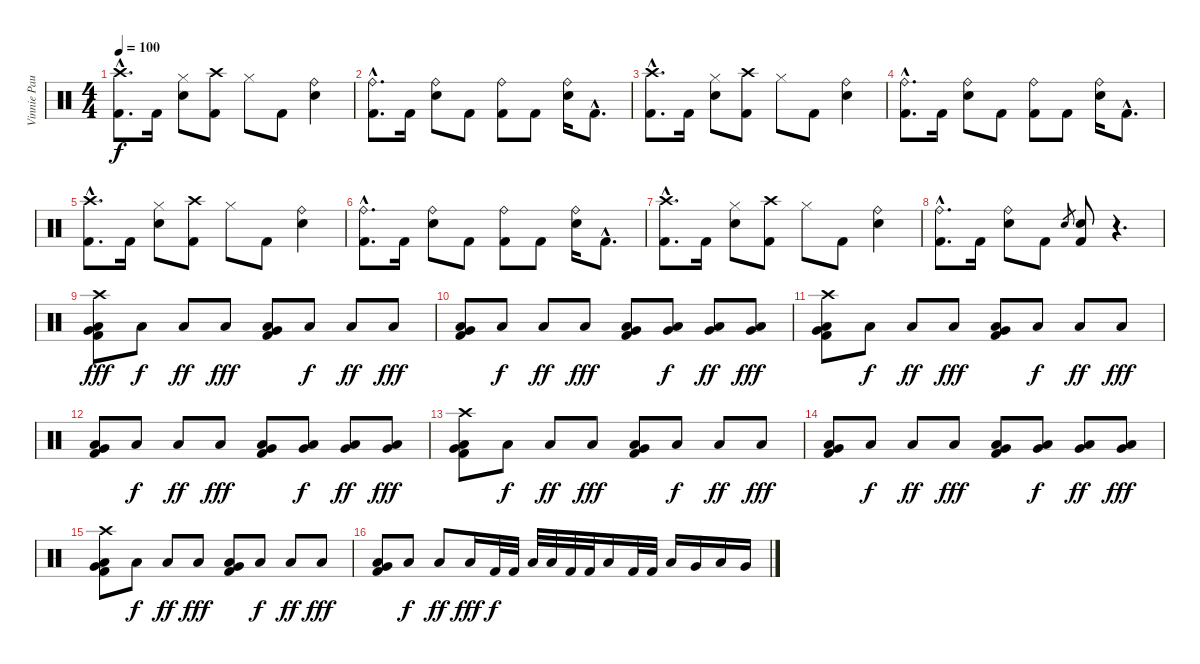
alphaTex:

\track ("Vinnie Paul # Drums" "Vinnie Pau") {instrument percussion}
\staff {score}
\articulation defaults
\ts (4 4)
\tempo 100
\clef neutral
\ks c
("Crash high (hit)"{hac} "Kick (hit) 2"{hac}).8{d dy f} "Kick (hit) 2".16 ("Hi-Hat (closed)" "Electric Snare (hit)").8 ("Crash high (hit)" "Kick (hit) 2").8 "Hi-Hat (closed)".8 "Kick (hit) 2".8 ("Ride (bell)" "Electric Snare (hit)").4 |
("Ride (bell)"{hac} "Kick (hit) 2"{hac}).8{d} "Kick (hit) 2".16 ("Ride (bell)" "Electric Snare (hit)").8 "Kick (hit) 2".8 ("Ride (bell)" "Kick (hit) 2").8 "Kick (hit) 2".8 ("Ride (bell)" "Electric Snare (hit)").16 "Kick (hit) 2"{hac}.8{d} |
("Crash high (hit)"{hac} "Kick (hit) 2"{hac}).8{d} "Kick (hit) 2".16 ("Hi-Hat (closed)" "Electric Snare (hit)").8 ("Crash high (hit)" "Kick (hit) 2").8 "Hi-Hat (closed)".8 "Kick (hit) 2".8 ("Ride (bell)" "Electric Snare (hit)").4 |
("Ride (bell)"{hac} "Kick (hit) 2"{hac}).8{d} "Kick (hit) 2".16 ("Ride (bell)" "Electric Snare (hit)").8 "Kick (hit) 2".8 ("Ride (bell)" "Kick (hit) 2").8 "Kick (hit) 2".8 ("Ride (bell)" "Electric Snare (hit)").16 "Kick (hit) 2"{hac}.8{d} |
("Crash high (hit)"{hac} "Kick (hit) 2"{hac}).8{d} "Kick (hit) 2".16 ("Hi-Hat (closed)" "Electric Snare (hit)").8 ("Crash high (hit)" "Kick (hit) 2").8 "Hi-Hat (closed)".8 "Kick (hit) 2".8 ("Ride (bell)" "Electric Snare (hit)").4 |
("Ride (bell)"{hac} "Kick (hit) 2"{hac}).8{d} "Kick (hit) 2".16 ("Ride (bell)" "Electric Snare (hit)").8 "Kick (hit) 2".8 ("Ride (bell)" "Kick (hit) 2").8 "Kick (hit) 2".8 ("Ride (bell)" "Electric Snare (hit)").16 "Kick (hit) 2"{hac}.8{d} |
("Crash high (hit)"{hac} "Kick (hit) 2"{hac}).8{d} "Kick (hit) 2".16 ("Hi-Hat (closed)" "Electric Snare (hit)").8 ("Crash high (hit)" "Kick (hit) 2").8 "Hi-Hat (closed)".8 "Kick (hit) 2".8 ("Ride (bell)" "Electric Snare (hit)").4 |
("Ride (bell)"{hac} "Kick (hit) 2"{hac}).8{d} "Kick (hit) 2".16 ("Ride (bell)" "Electric Snare (hit)").8 "Kick (hit) 2".8 "Electric Snare (hit)".8{gr} ("Electric Snare (hit)" "Kick (hit) 2").8 r.4{d} |
("Crash high (hit)" "Very Low Tom (hit)" "Low Floor Tom (hit)" "Kick (hit) 2").8{dy fff} "Low Floor Tom (hit)".8{dy f} "Low Floor Tom (hit)".8{dy ff} "Low Floor Tom (hit)".8{dy fff} ("Very Low Tom (hit)" "Low Floor Tom (hit)" "Kick (hit) 2").8 "Low Floor Tom (hit)".8{dy f} "Low Floor Tom (hit)".8{dy ff} "Low Floor Tom (hit)".8{dy fff} |
("Very Low Tom (hit)" "Low Floor Tom (hit)" "Kick (hit) 2").8 "Low Floor Tom (hit)".8{dy f} "Low Floor Tom (hit)".8{dy ff} "Low Floor Tom (hit)".8{dy fff} ("Very Low Tom (hit)" "Low Floor Tom (hit)" "Kick (hit) 2").8 ("Very Low Tom (hit)" "Low Floor Tom (hit)").8{dy f} ("Very Low Tom (hit)" "Low Floor Tom (hit)").8{dy ff} ("Very Low Tom (hit)" "Low Floor Tom (hit)").8{dy fff} |
("Crash high (hit)" "Very Low Tom (hit)" "Low Floor Tom (hit)" "Kick (hit) 2").8 "Low Floor Tom (hit)".8{dy f} "Low Floor Tom (hit)".8{dy ff} "Low Floor Tom (hit)".8{dy fff} ("Very Low Tom (hit)" "Low Floor Tom (hit)" "Kick (hit) 2").8 "Low Floor Tom (hit)".8{dy f} "Low Floor Tom (hit)".8{dy ff} "Low Floor Tom (hit)".8{dy fff} |
("Very Low Tom (hit)" "Low Floor Tom (hit)" "Kick (hit) 2").8 "Low Floor Tom (hit)".8{dy f} "Low Floor Tom (hit)".8{dy ff} "Low Floor Tom (hit)".8{dy fff} ("Very Low Tom (hit)" "Low Floor Tom (hit)" "Kick (hit) 2").8 ("Very Low Tom (hit)" "Low Floor Tom (hit)").8{dy f} ("Very Low Tom (hit)" "Low Floor Tom (hit)").8{dy ff} ("Very Low Tom (hit)" "Low Floor Tom (hit)").8{dy fff} |
("Crash high (hit)" "Very Low Tom (hit)" "Low Floor Tom (hit)" "Kick (hit) 2").8 "Low Floor Tom (hit)".8{dy f} "Low Floor Tom (hit)".8{dy ff} "Low Floor Tom (hit)".8{dy fff} ("Very Low Tom (hit)" "Low Floor Tom (hit)" "Kick (hit) 2").8 "Low Floor Tom (hit)".8{dy f} "Low Floor Tom (hit)".8{dy ff} "Low Floor Tom (hit)".8{dy fff} |
("Very Low Tom (hit)" "Low Floor Tom (hit)" "Kick (hit) 2").8 "Low Floor Tom (hit)".8{dy f} "Low Floor Tom (hit)".8{dy ff} "Low Floor Tom (hit)".8{dy fff} ("Very Low Tom (hit)" "Low Floor Tom (hit)" "Kick (hit) 2").8 ("Very Low Tom (hit)" "Low Floor Tom (hit)").8{dy f} ("Very Low Tom (hit)" "Low Floor Tom (hit)").8{dy ff} ("Very Low Tom (hit)" "Low Floor Tom (hit)").8{dy fff} |
("Crash high (hit)" "Very Low Tom (hit)" "Low Floor Tom (hit)" "Kick (hit) 2").8 "Low Floor Tom (hit)".8{dy f} "Low Floor Tom (hit)".8{dy ff} "Low Floor Tom (hit)".8{dy fff} ("Very Low Tom (hit)" "Low Floor Tom (hit)" "Kick (hit) 2").8 "Low Floor Tom (hit)".8{dy f} "Low Floor Tom (hit)".8{dy ff} "Low Floor Tom (hit)".8{dy fff} |
("Very Low Tom (hit)" "Low Floor Tom (hit)" "Kick (hit) 2").8 "Low Floor Tom (hit)".8{dy f} "Low Floor Tom (hit)".8{dy ff} "Low Floor Tom (hit)".16{dy fff} "Kick (hit) 2".32{dy f} "Kick (hit) 2".32 "Low Tom (hit)".32 "Low Tom (hit)".32 "Kick (hit) 2".32 "Kick (hit) 2".32 "Low Tom (hit)".16 "Kick (hit) 2".32 "Kick (hit) 2".32 "Low Tom (hit)".16 "Very Low Tom (hit)".16 "Low Floor Tom (hit)".16 "Very Low Tom (hit)".16
